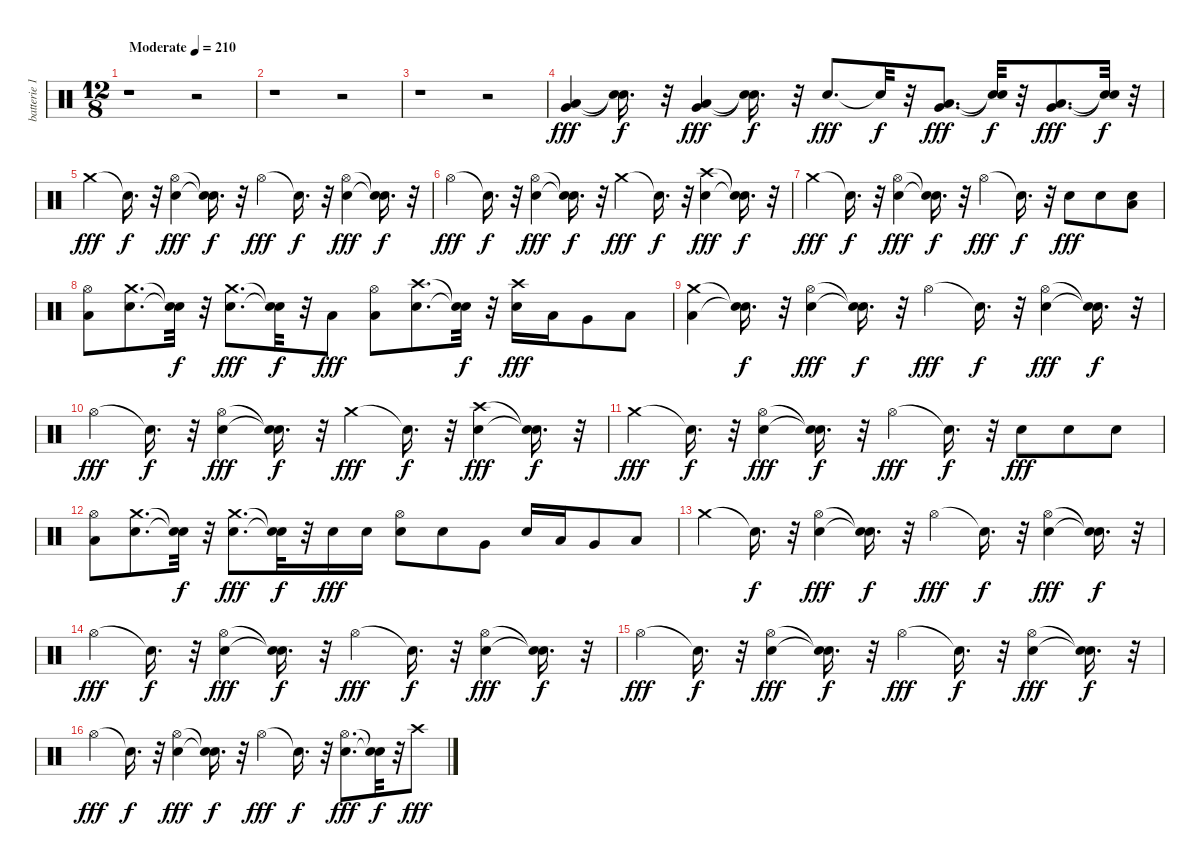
\track ("batterie 1" "batterie 1") {instrument percussion}
\staff {score}
\articulation defaults
\ts (12 8)
\tempo (210 "Moderate")
\clef neutral
\ks c
r.1{dy fff} r.2 |
r.1 r.2 |
r.1 r.2 |
("Very Low Tom (hit)" "Low Tom (hit)").4 ("Snare (hit)"{t} "Snare (hit)"{t}).16{d dy f} r.32 ("Low Floor Tom (hit)" "Very Low Tom (hit)").4{dy fff} ("Snare (hit)"{t} "Snare (hit)"{t}).16{d dy f} r.32 "Electric Snare (hit)".8{d dy fff} "Snare (hit)"{t}.32{dy f} r.32 ("Low Floor Tom (hit)" "Very Low Tom (hit)").8{d dy fff} ("Snare (hit)"{t} "Snare (hit)"{t}).32{dy f} r.32 ("Low Floor Tom (hit)" "Very Low Tom (hit)").8{d dy fff} ("Snare (hit)"{t} "Snare (hit)"{t}).32{dy f} r.32 |
"Crash medium (hit)".4{dy fff} "Snare (hit)"{t}.16{d dy f} r.32 ("Electric Snare (hit)" "Hi-Hat (open)").4{dy fff} ("Snare (hit)"{t} "Snare (hit)"{t}).16{d dy f} r.32 "Hi-Hat (open)".4{dy fff} "Snare (hit)"{t}.16{d dy f} r.32 ("Electric Snare (hit)" "Hi-Hat (open)").4{dy fff} ("Snare (hit)"{t} "Snare (hit)"{t}).16{d dy f} r.32 |
"Hi-Hat (open)".4{dy fff} "Snare (hit)"{t}.16{d dy f} r.32 ("Electric Snare (hit)" "Hi-Hat (open)").4{dy fff} ("Snare (hit)"{t} "Snare (hit)"{t}).16{d dy f} r.32 "Crash medium (hit)".4{dy fff} "Snare (hit)"{t}.16{d dy f} r.32 ("Electric Snare (hit)" "Crash high (hit)").4{dy fff} ("Snare (hit)"{t} "Snare (hit)"{t}).16{d dy f} r.32 |
"Crash medium (hit)".4{dy fff} "Snare (hit)"{t}.16{d dy f} r.32 ("Electric Snare (hit)" "Hi-Hat (open)").4{dy fff} ("Snare (hit)"{t} "Snare (hit)"{t}).16{d dy f} r.32 "Hi-Hat (open)".4{dy fff} "Snare (hit)"{t}.16{d dy f} r.32 "Electric Snare (hit)".8{dy fff} "Electric Snare (hit)".8 ("Electric Snare (hit)" "Low Floor Tom (hit)").8 |
("Low Floor Tom (hit)" "Hi-Hat (open)").8 ("Electric Snare (hit)" "Crash medium (hit)").8{d} ("Snare (hit)"{t} "Snare (hit)"{t}).32{dy f} r.32 ("Electric Snare (hit)" "Crash medium (hit)").8{d dy fff} ("Snare (hit)"{t} "Snare (hit)"{t}).32{dy f} r.32 "Low Floor Tom (hit)".8{dy fff} ("Low Floor Tom (hit)" "Hi-Hat (open)").8 ("Electric Snare (hit)" "Crash high (hit)").8{d} ("Snare (hit)"{t} "Snare (hit)"{t}).32{dy f} r.32 ("Electric Snare (hit)" "Crash high (hit)").16{dy fff} "Low Tom (hit)".16 "Very Low Tom (hit)".8 "Low Floor Tom (hit)".8 |
("Low Floor Tom (hit)" "Crash medium (hit)").4 ("Snare (hit)"{t} "Snare (hit)"{t}).16{d dy f} r.32 ("Electric Snare (hit)" "Hi-Hat (open)").4{dy fff} ("Snare (hit)"{t} "Snare (hit)"{t}).16{d dy f} r.32 "Hi-Hat (open)".4{dy fff} "Snare (hit)"{t}.16{d dy f} r.32 ("Electric Snare (hit)" "Hi-Hat (open)").4{dy fff} ("Snare (hit)"{t} "Snare (hit)"{t}).16{d dy f} r.32 |
"Hi-Hat (open)".4{dy fff} "Snare (hit)"{t}.16{d dy f} r.32 ("Electric Snare (hit)" "Hi-Hat (open)").4{dy fff} ("Snare (hit)"{t} "Snare (hit)"{t}).16{d dy f} r.32 "Crash medium (hit)".4{dy fff} "Snare (hit)"{t}.16{d dy f} r.32 ("Electric Snare (hit)" "Crash high (hit)").4{dy fff} ("Snare (hit)"{t} "Snare (hit)"{t}).16{d dy f} r.32 |
"Crash medium (hit)".4{dy fff} "Snare (hit)"{t}.16{d dy f} r.32 ("Electric Snare (hit)" "Hi-Hat (open)").4{dy fff} ("Snare (hit)"{t} "Snare (hit)"{t}).16{d dy f} r.32 "Hi-Hat (open)".4{dy fff} "Snare (hit)"{t}.16{d dy f} r.32 "Electric Snare (hit)".8{dy fff} "Electric Snare (hit)".8 "Electric Snare (hit)".8 |
("Low Floor Tom (hit)" "Hi-Hat (open)").8 ("Electric Snare (hit)" "Crash medium (hit)").8{d} ("Snare (hit)"{t} "Snare (hit)"{t}).32{dy f} r.32 ("Electric Snare (hit)" "Crash medium (hit)").8{d dy fff} ("Snare (hit)"{t} "Snare (hit)"{t}).32{dy f} r.32 "Electric Snare (hit)".16{dy fff} "Electric Snare (hit)".16 ("Electric Snare (hit)" "Hi-Hat (open)").8 "Electric Snare (hit)".8 "Very Low Tom (hit)".8 "Electric Snare (hit)".16 "Low Tom (hit)".16 "Very Low Tom (hit)".8 "Low Floor Tom (hit)".8 |
"Crash medium (hit)".4 "Snare (hit)"{t}.16{d dy f} r.32 ("Electric Snare (hit)" "Hi-Hat (open)").4{dy fff} ("Snare (hit)"{t} "Snare (hit)"{t}).16{d dy f} r.32 "Hi-Hat (open)".4{dy fff} "Snare (hit)"{t}.16{d dy f} r.32 ("Electric Snare (hit)" "Hi-Hat (open)").4{dy fff} ("Snare (hit)"{t} "Snare (hit)"{t}).16{d dy f} r.32 |
"Hi-Hat (open)".4{dy fff} "Snare (hit)"{t}.16{d dy f} r.32 ("Electric Snare (hit)" "Hi-Hat (open)").4{dy fff} ("Snare (hit)"{t} "Snare (hit)"{t}).16{d dy f} r.32 "Hi-Hat (open)".4{dy fff} "Snare (hit)"{t}.16{d dy f} r.32 ("Electric Snare (hit)" "Hi-Hat (open)").4{dy fff} ("Snare (hit)"{t} "Snare (hit)"{t}).16{d dy f} r.32 |
"Hi-Hat (open)".4{dy fff} "Snare (hit)"{t}.16{d dy f} r.32 ("Electric Snare (hit)" "Hi-Hat (open)").4{dy fff} ("Snare (hit)"{t} "Snare (hit)"{t}).16{d dy f} r.32 "Hi-Hat (open)".4{dy fff} "Snare (hit)"{t}.16{d dy f} r.32 ("Electric Snare (hit)" "Hi-Hat (open)").4{dy fff} ("Snare (hit)"{t} "Snare (hit)"{t}).16{d dy f} r.32 |
"Hi-Hat (open)".4{dy fff} "Snare (hit)"{t}.16{d dy f} r.32 ("Electric Snare (hit)" "Hi-Hat (open)").4{dy fff} ("Snare (hit)"{t} "Snare (hit)"{t}).16{d dy f} r.32 "Hi-Hat (open)".4{dy fff} "Snare (hit)"{t}.16{d dy f} r.32 ("Electric Snare (hit)" "Hi-Hat (open)").8{d dy fff} ("Snare (hit)"{t} "Snare (hit)"{t}).32{dy f} r.32 "Crash high (hit)".8{dy fff}
